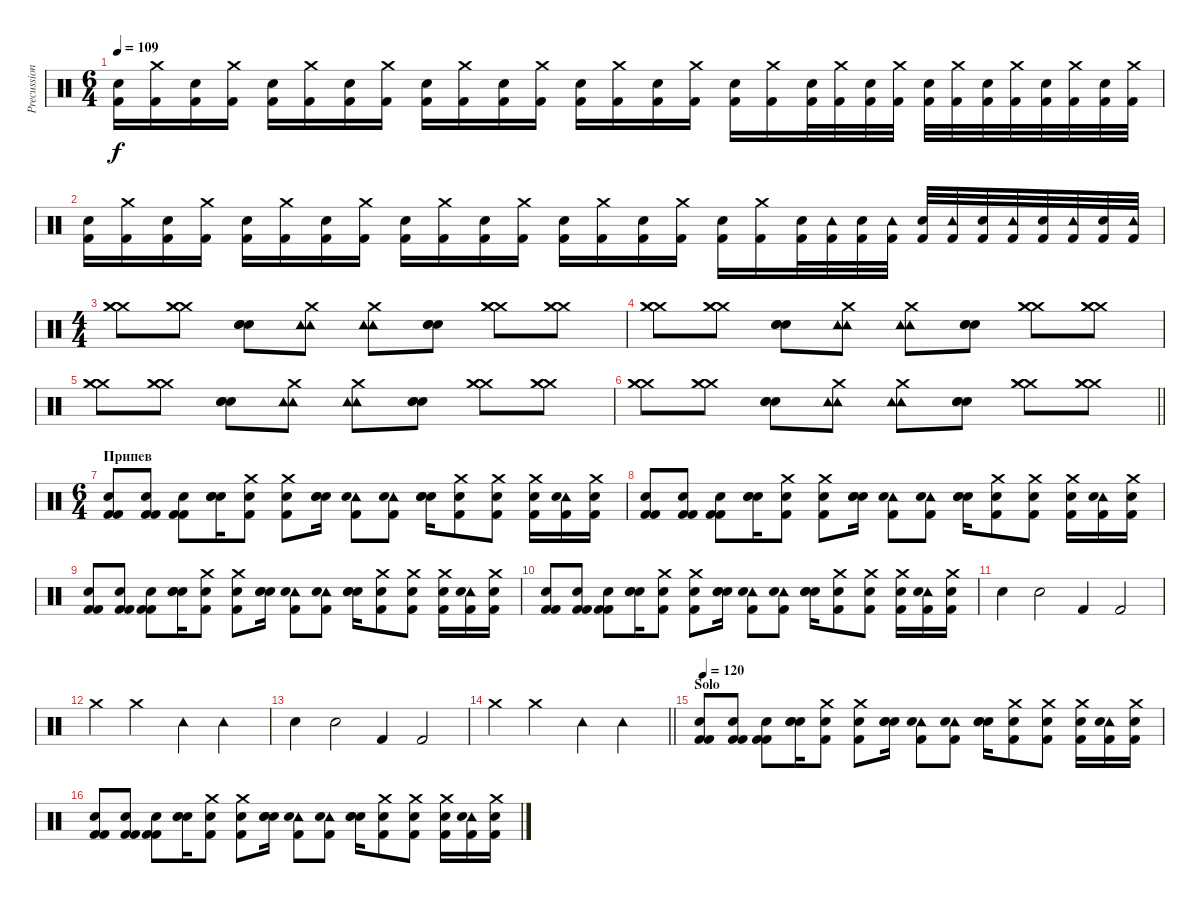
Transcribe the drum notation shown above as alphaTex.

\track ("Precussion" "Precussion") {instrument percussion}
\staff {score}
\articulation defaults
\ts (6 4)
\tempo 109
\clef neutral
\ks c
("Electric Snare (hit)" "Kick (hit) 2").16{dy f} ("Crash medium (hit)" "Kick (hit) 2").16 ("Electric Snare (hit)" "Kick (hit) 2").16 ("Crash medium (hit)" "Kick (hit) 2").16 ("Electric Snare (hit)" "Kick (hit) 2").16 ("Crash medium (hit)" "Kick (hit) 2").16 ("Electric Snare (hit)" "Kick (hit) 2").16 ("Crash medium (hit)" "Kick (hit) 2").16 ("Electric Snare (hit)" "Kick (hit) 2").16 ("Crash medium (hit)" "Kick (hit) 2").16 ("Electric Snare (hit)" "Kick (hit) 2").16 ("Crash medium (hit)" "Kick (hit) 2").16 ("Electric Snare (hit)" "Kick (hit) 2").16 ("Crash medium (hit)" "Kick (hit) 2").16 ("Electric Snare (hit)" "Kick (hit) 2").16 ("Crash medium (hit)" "Kick (hit) 2").16 ("Electric Snare (hit)" "Kick (hit) 2").16 ("Crash medium (hit)" "Kick (hit) 2").16 ("Electric Snare (hit)" "Kick (hit) 2").32 ("Crash medium (hit)" "Kick (hit) 2").32 ("Electric Snare (hit)" "Kick (hit) 2").32 ("Crash medium (hit)" "Kick (hit) 2").32 ("Electric Snare (hit)" "Kick (hit) 2").32 ("Crash medium (hit)" "Kick (hit) 2").32 ("Electric Snare (hit)" "Kick (hit) 2").32 ("Crash medium (hit)" "Kick (hit) 2").32 ("Electric Snare (hit)" "Kick (hit) 2").32 ("Crash medium (hit)" "Kick (hit) 2").32 ("Electric Snare (hit)" "Kick (hit) 2").32 ("Crash medium (hit)" "Kick (hit) 2").32 |
("Electric Snare (hit)" "Kick (hit) 2").16 ("Crash medium (hit)" "Kick (hit) 2").16 ("Electric Snare (hit)" "Kick (hit) 2").16 ("Crash medium (hit)" "Kick (hit) 2").16 ("Electric Snare (hit)" "Kick (hit) 2").16 ("Crash medium (hit)" "Kick (hit) 2").16 ("Electric Snare (hit)" "Kick (hit) 2").16 ("Crash medium (hit)" "Kick (hit) 2").16 ("Electric Snare (hit)" "Kick (hit) 2").16 ("Crash medium (hit)" "Kick (hit) 2").16 ("Electric Snare (hit)" "Kick (hit) 2").16 ("Crash medium (hit)" "Kick (hit) 2").16 ("Electric Snare (hit)" "Kick (hit) 2").16 ("Crash medium (hit)" "Kick (hit) 2").16 ("Electric Snare (hit)" "Kick (hit) 2").16 ("Crash medium (hit)" "Kick (hit) 2").16 ("Electric Snare (hit)" "Kick (hit) 2").16 ("Crash medium (hit)" "Kick (hit) 2").16 ("Electric Snare (hit)" "Kick (hit) 2").32 ("Tambourine (hit)" "Kick (hit) 2").32 ("Electric Snare (hit)" "Kick (hit) 2").32 ("Tambourine (hit)" "Kick (hit) 2").32 ("Electric Snare (hit)" "Kick (hit) 2").32 ("Tambourine (hit)" "Kick (hit) 2").32 ("Electric Snare (hit)" "Kick (hit) 2").32 ("Tambourine (hit)" "Kick (hit) 2").32 ("Electric Snare (hit)" "Kick (hit) 2").32 ("Tambourine (hit)" "Kick (hit) 2").32 ("Electric Snare (hit)" "Kick (hit) 2").32 ("Tambourine (hit)" "Kick (hit) 2").32 |
\ts (4 4)
("Crash medium (hit)" "Crash medium (hit)" "Crash medium (hit)").8 ("Crash medium (hit)" "Crash medium (hit)" "Crash medium (hit)").8 ("Electric Snare (hit)" "Electric Snare (hit)" "Electric Snare (hit)").8 ("Tambourine (hit)" "Tambourine (hit)" "Crash medium (hit)").8 ("Tambourine (hit)" "Tambourine (hit)" "Crash medium (hit)").8 ("Electric Snare (hit)" "Electric Snare (hit)" "Electric Snare (hit)").8 ("Crash medium (hit)" "Crash medium (hit)" "Crash medium (hit)").8 ("Crash medium (hit)" "Crash medium (hit)" "Crash medium (hit)").8 |
("Crash medium (hit)" "Crash medium (hit)" "Crash medium (hit)").8 ("Crash medium (hit)" "Crash medium (hit)" "Crash medium (hit)").8 ("Electric Snare (hit)" "Electric Snare (hit)" "Electric Snare (hit)").8 ("Tambourine (hit)" "Tambourine (hit)" "Crash medium (hit)").8 ("Tambourine (hit)" "Tambourine (hit)" "Crash medium (hit)").8 ("Electric Snare (hit)" "Electric Snare (hit)" "Electric Snare (hit)").8 ("Crash medium (hit)" "Crash medium (hit)" "Crash medium (hit)").8 ("Crash medium (hit)" "Crash medium (hit)" "Crash medium (hit)").8 |
("Crash medium (hit)" "Crash medium (hit)" "Crash medium (hit)").8 ("Crash medium (hit)" "Crash medium (hit)" "Crash medium (hit)").8 ("Electric Snare (hit)" "Electric Snare (hit)" "Electric Snare (hit)").8 ("Tambourine (hit)" "Tambourine (hit)" "Crash medium (hit)").8 ("Tambourine (hit)" "Tambourine (hit)" "Crash medium (hit)").8 ("Electric Snare (hit)" "Electric Snare (hit)" "Electric Snare (hit)").8 ("Crash medium (hit)" "Crash medium (hit)" "Crash medium (hit)").8 ("Crash medium (hit)" "Crash medium (hit)" "Crash medium (hit)").8 |
\barLineRight lightlight
("Crash medium (hit)" "Crash medium (hit)" "Crash medium (hit)").8 ("Crash medium (hit)" "Crash medium (hit)" "Crash medium (hit)").8 ("Electric Snare (hit)" "Electric Snare (hit)" "Electric Snare (hit)").8 ("Tambourine (hit)" "Tambourine (hit)" "Crash medium (hit)").8 ("Tambourine (hit)" "Tambourine (hit)" "Crash medium (hit)").8 ("Electric Snare (hit)" "Electric Snare (hit)" "Electric Snare (hit)").8 ("Crash medium (hit)" "Crash medium (hit)" "Crash medium (hit)").8 ("Crash medium (hit)" "Crash medium (hit)" "Crash medium (hit)").8 |
\ts (6 4)
\section ("" "Припев")
("Electric Snare (hit)" "Kick (hit) 2" "Kick (hit) 2").8 ("Electric Snare (hit)" "Kick (hit) 2" "Kick (hit) 2").8 ("Electric Snare (hit)" "Kick (hit) 2" "Kick (hit) 2").8 ("Electric Snare (hit)" "Electric Snare (hit)" "Electric Snare (hit)").16 ("Crash medium (hit)" "Electric Snare (hit)" "Kick (hit) 2").8 ("Crash medium (hit)" "Electric Snare (hit)" "Kick (hit) 2").8 ("Electric Snare (hit)" "Electric Snare (hit)" "Electric Snare (hit)").16 ("Tambourine (hit)" "Electric Snare (hit)" "Kick (hit) 2").8 ("Tambourine (hit)" "Electric Snare (hit)" "Kick (hit) 2").8 ("Electric Snare (hit)" "Electric Snare (hit)" "Electric Snare (hit)").16 ("Crash medium (hit)" "Electric Snare (hit)" "Kick (hit) 2").8 ("Crash medium (hit)" "Electric Snare (hit)" "Kick (hit) 2").8 ("Crash medium (hit)" "Electric Snare (hit)" "Kick (hit) 2").16 ("Tambourine (hit)" "Electric Snare (hit)" "Kick (hit) 2").16 ("Crash medium (hit)" "Electric Snare (hit)" "Kick (hit) 2").16 |
("Electric Snare (hit)" "Kick (hit) 2" "Kick (hit) 2").8 ("Electric Snare (hit)" "Kick (hit) 2" "Kick (hit) 2").8 ("Electric Snare (hit)" "Kick (hit) 2" "Kick (hit) 2").8 ("Electric Snare (hit)" "Electric Snare (hit)" "Electric Snare (hit)").16 ("Crash medium (hit)" "Electric Snare (hit)" "Kick (hit) 2").8 ("Crash medium (hit)" "Electric Snare (hit)" "Kick (hit) 2").8 ("Electric Snare (hit)" "Electric Snare (hit)" "Electric Snare (hit)").16 ("Tambourine (hit)" "Electric Snare (hit)" "Kick (hit) 2").8 ("Tambourine (hit)" "Electric Snare (hit)" "Kick (hit) 2").8 ("Electric Snare (hit)" "Electric Snare (hit)" "Electric Snare (hit)").16 ("Crash medium (hit)" "Electric Snare (hit)" "Kick (hit) 2").8 ("Crash medium (hit)" "Electric Snare (hit)" "Kick (hit) 2").8 ("Crash medium (hit)" "Electric Snare (hit)" "Kick (hit) 2").16 ("Tambourine (hit)" "Electric Snare (hit)" "Kick (hit) 2").16 ("Crash medium (hit)" "Electric Snare (hit)" "Kick (hit) 2").16 |
("Electric Snare (hit)" "Kick (hit) 2" "Kick (hit) 2").8 ("Electric Snare (hit)" "Kick (hit) 2" "Kick (hit) 2").8 ("Electric Snare (hit)" "Kick (hit) 2" "Kick (hit) 2").8 ("Electric Snare (hit)" "Electric Snare (hit)" "Electric Snare (hit)").16 ("Crash medium (hit)" "Electric Snare (hit)" "Kick (hit) 2").8 ("Crash medium (hit)" "Electric Snare (hit)" "Kick (hit) 2").8 ("Electric Snare (hit)" "Electric Snare (hit)" "Electric Snare (hit)").16 ("Tambourine (hit)" "Electric Snare (hit)" "Kick (hit) 2").8 ("Tambourine (hit)" "Electric Snare (hit)" "Kick (hit) 2").8 ("Electric Snare (hit)" "Electric Snare (hit)" "Electric Snare (hit)").16 ("Crash medium (hit)" "Electric Snare (hit)" "Kick (hit) 2").8 ("Crash medium (hit)" "Electric Snare (hit)" "Kick (hit) 2").8 ("Crash medium (hit)" "Electric Snare (hit)" "Kick (hit) 2").16 ("Tambourine (hit)" "Electric Snare (hit)" "Kick (hit) 2").16 ("Crash medium (hit)" "Electric Snare (hit)" "Kick (hit) 2").16 |
("Electric Snare (hit)" "Kick (hit) 2" "Kick (hit) 2").8 ("Electric Snare (hit)" "Kick (hit) 2" "Kick (hit) 2").8 ("Electric Snare (hit)" "Kick (hit) 2" "Kick (hit) 2").8 ("Electric Snare (hit)" "Electric Snare (hit)" "Electric Snare (hit)").16 ("Crash medium (hit)" "Electric Snare (hit)" "Kick (hit) 2").8 ("Crash medium (hit)" "Electric Snare (hit)" "Kick (hit) 2").8 ("Electric Snare (hit)" "Electric Snare (hit)" "Electric Snare (hit)").16 ("Tambourine (hit)" "Electric Snare (hit)" "Kick (hit) 2").8 ("Tambourine (hit)" "Electric Snare (hit)" "Kick (hit) 2").8 ("Electric Snare (hit)" "Electric Snare (hit)" "Electric Snare (hit)").16 ("Crash medium (hit)" "Electric Snare (hit)" "Kick (hit) 2").8 ("Crash medium (hit)" "Electric Snare (hit)" "Kick (hit) 2").8 ("Crash medium (hit)" "Electric Snare (hit)" "Kick (hit) 2").16 ("Tambourine (hit)" "Electric Snare (hit)" "Kick (hit) 2").16 ("Crash medium (hit)" "Electric Snare (hit)" "Kick (hit) 2").16 |
"Electric Snare (hit)".4 "Electric Snare (hit)".2 "Kick (hit) 2".4 "Kick (hit) 2".2 |
"Crash medium (hit)".4 "Crash medium (hit)".2 "Tambourine (hit)".4 "Tambourine (hit)".2 |
"Electric Snare (hit)".4 "Electric Snare (hit)".2 "Kick (hit) 2".4 "Kick (hit) 2".2 |
\barLineRight lightlight "Crash medium (hit)".4 "Crash medium (hit)".2 "Tambourine (hit)".4 "Tambourine (hit)".2
|
\section ("" "Solo")
\tempo 120
("Electric Snare (hit)" "Kick (hit) 2" "Kick (hit) 2").8 ("Electric Snare (hit)" "Kick (hit) 2" "Kick (hit) 2").8 ("Electric Snare (hit)" "Kick (hit) 2" "Kick (hit) 2").8 ("Electric Snare (hit)" "Electric Snare (hit)" "Electric Snare (hit)").16 ("Crash medium (hit)" "Electric Snare (hit)" "Kick (hit) 2").8 ("Crash medium (hit)" "Electric Snare (hit)" "Kick (hit) 2").8 ("Electric Snare (hit)" "Electric Snare (hit)" "Electric Snare (hit)").16 ("Tambourine (hit)" "Electric Snare (hit)" "Kick (hit) 2").8 ("Tambourine (hit)" "Electric Snare (hit)" "Kick (hit) 2").8 ("Electric Snare (hit)" "Electric Snare (hit)" "Electric Snare (hit)").16 ("Crash medium (hit)" "Electric Snare (hit)" "Kick (hit) 2").8 ("Crash medium (hit)" "Electric Snare (hit)" "Kick (hit) 2").8 ("Crash medium (hit)" "Electric Snare (hit)" "Kick (hit) 2").16 ("Tambourine (hit)" "Electric Snare (hit)" "Kick (hit) 2").16 ("Crash medium (hit)" "Electric Snare (hit)" "Kick (hit) 2").16 |
("Electric Snare (hit)" "Kick (hit) 2" "Kick (hit) 2").8 ("Electric Snare (hit)" "Kick (hit) 2" "Kick (hit) 2").8 ("Electric Snare (hit)" "Kick (hit) 2" "Kick (hit) 2").8 ("Electric Snare (hit)" "Electric Snare (hit)" "Electric Snare (hit)").16 ("Crash medium (hit)" "Electric Snare (hit)" "Kick (hit) 2").8 ("Crash medium (hit)" "Electric Snare (hit)" "Kick (hit) 2").8 ("Electric Snare (hit)" "Electric Snare (hit)" "Electric Snare (hit)").16 ("Tambourine (hit)" "Electric Snare (hit)" "Kick (hit) 2").8 ("Tambourine (hit)" "Electric Snare (hit)" "Kick (hit) 2").8 ("Electric Snare (hit)" "Electric Snare (hit)" "Electric Snare (hit)").16 ("Crash medium (hit)" "Electric Snare (hit)" "Kick (hit) 2").8 ("Crash medium (hit)" "Electric Snare (hit)" "Kick (hit) 2").8 ("Crash medium (hit)" "Electric Snare (hit)" "Kick (hit) 2").16 ("Tambourine (hit)" "Electric Snare (hit)" "Kick (hit) 2").16 ("Crash medium (hit)" "Electric Snare (hit)" "Kick (hit) 2").16
